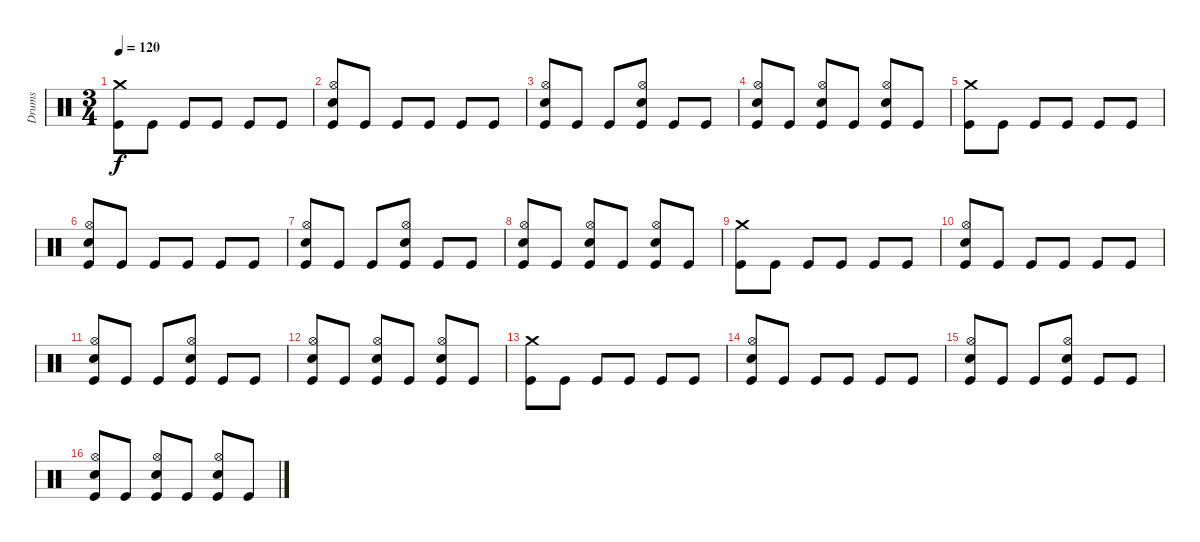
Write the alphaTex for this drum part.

\track ("Drums" "Drums") {instrument percussion}
\staff {score}
\articulation defaults
\ts (3 4)
\tempo 120
\clef neutral
\ks c
("Crash medium (hit)" "Kick (hit)").8{dy f} "Kick (hit)".8 "Kick (hit)".8 "Kick (hit)".8 "Kick (hit)".8 "Kick (hit)".8 |
("Hi-Hat (open)" "Snare (hit) 2" "Kick (hit)").8 "Kick (hit)".8 "Kick (hit)".8 "Kick (hit)".8 "Kick (hit)".8 "Kick (hit)".8 |
("Hi-Hat (open)" "Snare (hit) 2" "Kick (hit)").8 "Kick (hit)".8 "Kick (hit)".8 ("Hi-Hat (open)" "Snare (hit) 2" "Kick (hit)").8 "Kick (hit)".8 "Kick (hit)".8 |
("Hi-Hat (open)" "Snare (hit) 2" "Kick (hit)").8 "Kick (hit)".8 ("Hi-Hat (open)" "Snare (hit) 2" "Kick (hit)").8 "Kick (hit)".8 ("Hi-Hat (open)" "Snare (hit) 2" "Kick (hit)").8 "Kick (hit)".8 |
("Crash medium (hit)" "Kick (hit)").8 "Kick (hit)".8 "Kick (hit)".8 "Kick (hit)".8 "Kick (hit)".8 "Kick (hit)".8 |
("Hi-Hat (open)" "Snare (hit) 2" "Kick (hit)").8 "Kick (hit)".8 "Kick (hit)".8 "Kick (hit)".8 "Kick (hit)".8 "Kick (hit)".8 |
("Hi-Hat (open)" "Snare (hit) 2" "Kick (hit)").8 "Kick (hit)".8 "Kick (hit)".8 ("Hi-Hat (open)" "Snare (hit) 2" "Kick (hit)").8 "Kick (hit)".8 "Kick (hit)".8 |
("Hi-Hat (open)" "Snare (hit) 2" "Kick (hit)").8 "Kick (hit)".8 ("Hi-Hat (open)" "Snare (hit) 2" "Kick (hit)").8 "Kick (hit)".8 ("Hi-Hat (open)" "Snare (hit) 2" "Kick (hit)").8 "Kick (hit)".8 |
("Crash medium (hit)" "Kick (hit)").8 "Kick (hit)".8 "Kick (hit)".8 "Kick (hit)".8 "Kick (hit)".8 "Kick (hit)".8 |
("Hi-Hat (open)" "Snare (hit) 2" "Kick (hit)").8 "Kick (hit)".8 "Kick (hit)".8 "Kick (hit)".8 "Kick (hit)".8 "Kick (hit)".8 |
("Hi-Hat (open)" "Snare (hit) 2" "Kick (hit)").8 "Kick (hit)".8 "Kick (hit)".8 ("Hi-Hat (open)" "Snare (hit) 2" "Kick (hit)").8 "Kick (hit)".8 "Kick (hit)".8 |
("Hi-Hat (open)" "Snare (hit) 2" "Kick (hit)").8 "Kick (hit)".8 ("Hi-Hat (open)" "Snare (hit) 2" "Kick (hit)").8 "Kick (hit)".8 ("Hi-Hat (open)" "Snare (hit) 2" "Kick (hit)").8 "Kick (hit)".8 |
("Crash medium (hit)" "Kick (hit)").8 "Kick (hit)".8 "Kick (hit)".8 "Kick (hit)".8 "Kick (hit)".8 "Kick (hit)".8 |
("Hi-Hat (open)" "Snare (hit) 2" "Kick (hit)").8 "Kick (hit)".8 "Kick (hit)".8 "Kick (hit)".8 "Kick (hit)".8 "Kick (hit)".8 |
("Hi-Hat (open)" "Snare (hit) 2" "Kick (hit)").8 "Kick (hit)".8 "Kick (hit)".8 ("Hi-Hat (open)" "Snare (hit) 2" "Kick (hit)").8 "Kick (hit)".8 "Kick (hit)".8 |
("Hi-Hat (open)" "Snare (hit) 2" "Kick (hit)").8 "Kick (hit)".8 ("Hi-Hat (open)" "Snare (hit) 2" "Kick (hit)").8 "Kick (hit)".8 ("Hi-Hat (open)" "Snare (hit) 2" "Kick (hit)").8 "Kick (hit)".8
